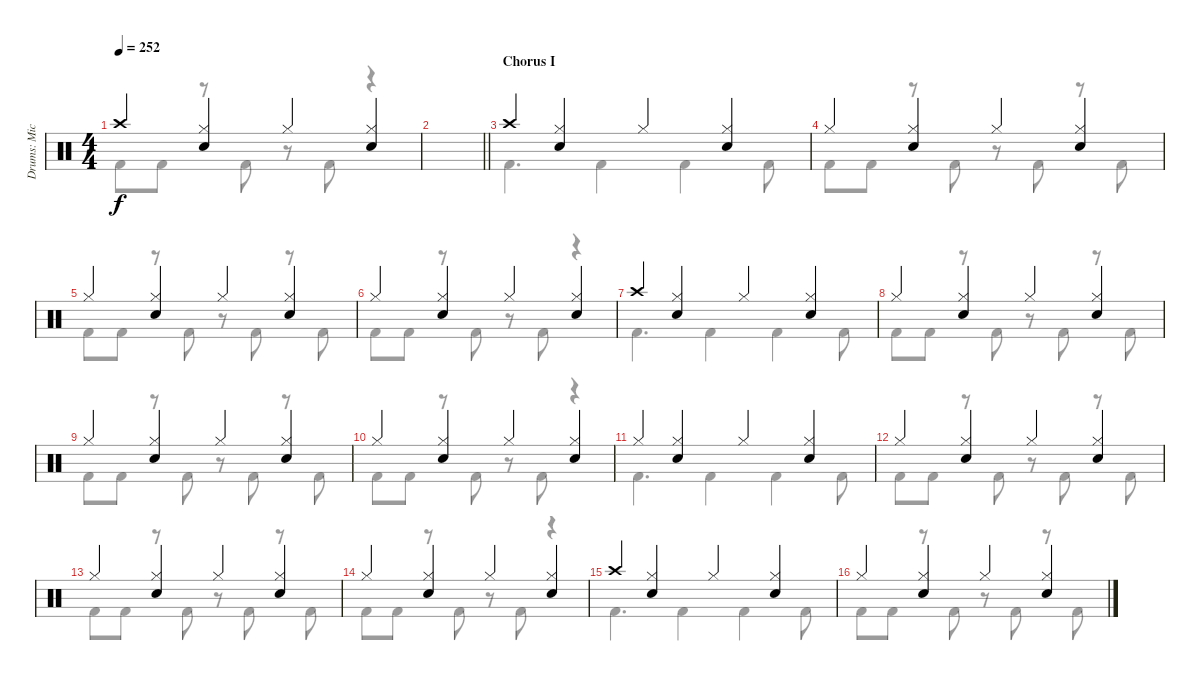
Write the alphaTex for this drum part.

\track ("Drums: Mick" "Drums: Mic") {instrument percussion}
\staff {score}
\articulation defaults
\voice
\ts (4 4)
\tempo 252
\clef neutral
\ks c "Crash high (hit)".4{dy f}
("Hi-Hat (closed)" "Snare (hit) 2").4 "Hi-Hat (closed)".4 ("Hi-Hat (closed)" "Snare (hit) 2").4 |
\barLineRight lightlight
|
\section ("" "Chorus I")
"Crash high (hit)".4 ("Hi-Hat (closed)" "Snare (hit) 2").4 "Hi-Hat (closed)".4 ("Hi-Hat (closed)" "Snare (hit) 2").4 |
"Hi-Hat (closed)".4 ("Hi-Hat (closed)" "Snare (hit) 2").4 "Hi-Hat (closed)".4 ("Hi-Hat (closed)" "Snare (hit) 2").4 |
"Hi-Hat (closed)".4 ("Hi-Hat (closed)" "Snare (hit) 2").4 "Hi-Hat (closed)".4 ("Hi-Hat (closed)" "Snare (hit) 2").4 |
"Hi-Hat (closed)".4 ("Hi-Hat (closed)" "Snare (hit) 2").4 "Hi-Hat (closed)".4 ("Hi-Hat (closed)" "Snare (hit) 2").4 |
"Crash high (hit)".4 ("Hi-Hat (closed)" "Snare (hit) 2").4 "Hi-Hat (closed)".4 ("Hi-Hat (closed)" "Snare (hit) 2").4 |
"Hi-Hat (closed)".4 ("Hi-Hat (closed)" "Snare (hit) 2").4 "Hi-Hat (closed)".4 ("Hi-Hat (closed)" "Snare (hit) 2").4 |
"Hi-Hat (closed)".4 ("Hi-Hat (closed)" "Snare (hit) 2").4 "Hi-Hat (closed)".4 ("Hi-Hat (closed)" "Snare (hit) 2").4 |
"Hi-Hat (closed)".4 ("Hi-Hat (closed)" "Snare (hit) 2").4 "Hi-Hat (closed)".4 ("Hi-Hat (closed)" "Snare (hit) 2").4 |
"Hi-Hat (closed)".4 ("Hi-Hat (closed)" "Snare (hit) 2").4 "Hi-Hat (closed)".4 ("Hi-Hat (closed)" "Snare (hit) 2").4 |
"Hi-Hat (closed)".4 ("Hi-Hat (closed)" "Snare (hit) 2").4 "Hi-Hat (closed)".4 ("Hi-Hat (closed)" "Snare (hit) 2").4 |
"Hi-Hat (closed)".4 ("Hi-Hat (closed)" "Snare (hit) 2").4 "Hi-Hat (closed)".4 ("Hi-Hat (closed)" "Snare (hit) 2").4 |
"Hi-Hat (closed)".4 ("Hi-Hat (closed)" "Snare (hit) 2").4 "Hi-Hat (closed)".4 ("Hi-Hat (closed)" "Snare (hit) 2").4 |
"Crash high (hit)".4 ("Hi-Hat (closed)" "Snare (hit) 2").4 "Hi-Hat (closed)".4 ("Hi-Hat (closed)" "Snare (hit) 2").4 |
"Hi-Hat (closed)".4 ("Hi-Hat (closed)" "Snare (hit) 2").4 "Hi-Hat (closed)".4 ("Hi-Hat (closed)" "Snare (hit) 2").4
\voice
\clef neutral
\ottava regular
\simile none
\ks c "Kick (hit) 2".8{dy f} "Kick (hit) 2".8
r.8 "Kick (hit) 2".8 r.8 "Kick (hit) 2".8 r.4 |
\barLineRight lightlight
|
"Kick (hit) 2".4{d} "Kick (hit) 2".4 "Kick (hit) 2".4 "Kick (hit) 2".8 |
"Kick (hit) 2".8 "Kick (hit) 2".8 r.8 "Kick (hit) 2".8 r.8 "Kick (hit) 2".8 r.8 "Kick (hit) 2".8 |
"Kick (hit) 2".8 "Kick (hit) 2".8 r.8 "Kick (hit) 2".8 r.8 "Kick (hit) 2".8 r.8 "Kick (hit) 2".8 |
"Kick (hit) 2".8 "Kick (hit) 2".8 r.8 "Kick (hit) 2".8 r.8 "Kick (hit) 2".8 r.4 |
"Kick (hit) 2".4{d} "Kick (hit) 2".4 "Kick (hit) 2".4 "Kick (hit) 2".8 |
"Kick (hit) 2".8 "Kick (hit) 2".8 r.8 "Kick (hit) 2".8 r.8 "Kick (hit) 2".8 r.8 "Kick (hit) 2".8 |
"Kick (hit) 2".8 "Kick (hit) 2".8 r.8 "Kick (hit) 2".8 r.8 "Kick (hit) 2".8 r.8 "Kick (hit) 2".8 |
"Kick (hit) 2".8 "Kick (hit) 2".8 r.8 "Kick (hit) 2".8 r.8 "Kick (hit) 2".8 r.4 |
"Kick (hit) 2".4{d} "Kick (hit) 2".4 "Kick (hit) 2".4 "Kick (hit) 2".8 |
"Kick (hit) 2".8 "Kick (hit) 2".8 r.8 "Kick (hit) 2".8 r.8 "Kick (hit) 2".8 r.8 "Kick (hit) 2".8 |
"Kick (hit) 2".8 "Kick (hit) 2".8 r.8 "Kick (hit) 2".8 r.8 "Kick (hit) 2".8 r.8 "Kick (hit) 2".8 |
"Kick (hit) 2".8 "Kick (hit) 2".8 r.8 "Kick (hit) 2".8 r.8 "Kick (hit) 2".8 r.4 |
"Kick (hit) 2".4{d} "Kick (hit) 2".4 "Kick (hit) 2".4 "Kick (hit) 2".8 |
"Kick (hit) 2".8 "Kick (hit) 2".8 r.8 "Kick (hit) 2".8 r.8 "Kick (hit) 2".8 r.8 "Kick (hit) 2".8
